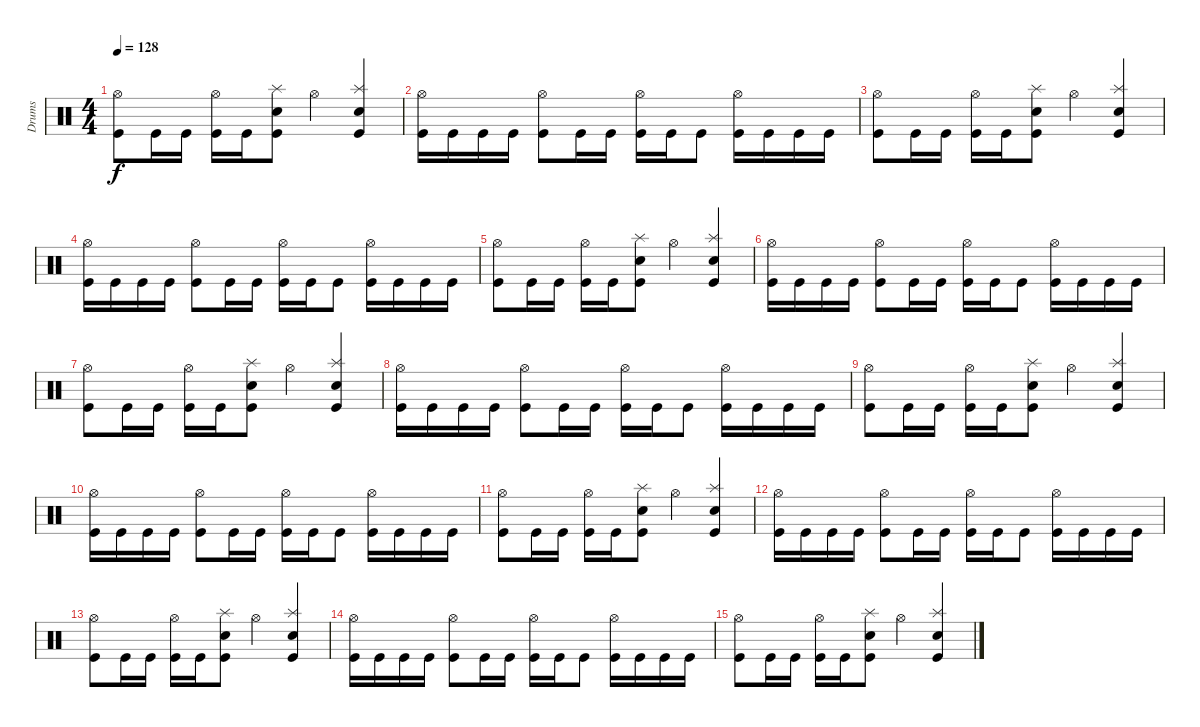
\track ("Drums" "Drums") {instrument percussion}
\staff {score}
\articulation defaults
\ts (4 4)
\tempo 128
\clef neutral
\ks c
("Hi-Hat (open)" "Kick (hit)").8{dy f} "Kick (hit)".16 "Kick (hit)".16 ("Hi-Hat (open)" "Kick (hit)").16 "Kick (hit)".16 ("Splash (hit)" "Snare (hit) 2" "Kick (hit)").8 "Hi-Hat (open)".4 ("Splash (hit)" "Snare (hit) 2" "Kick (hit)").4 |
("Hi-Hat (open)" "Kick (hit)").16 "Kick (hit)".16 "Kick (hit)".16 "Kick (hit)".16 ("Hi-Hat (open)" "Kick (hit)").8 "Kick (hit)".16 "Kick (hit)".16 ("Hi-Hat (open)" "Kick (hit)").16 "Kick (hit)".16 "Kick (hit)".8 ("Hi-Hat (open)" "Kick (hit)").16 "Kick (hit)".16 "Kick (hit)".16 "Kick (hit)".16 |
("Hi-Hat (open)" "Kick (hit)").8 "Kick (hit)".16 "Kick (hit)".16 ("Hi-Hat (open)" "Kick (hit)").16 "Kick (hit)".16 ("Splash (hit)" "Snare (hit) 2" "Kick (hit)").8 "Hi-Hat (open)".4 ("Splash (hit)" "Snare (hit) 2" "Kick (hit)").4 |
("Hi-Hat (open)" "Kick (hit)").16 "Kick (hit)".16 "Kick (hit)".16 "Kick (hit)".16 ("Hi-Hat (open)" "Kick (hit)").8 "Kick (hit)".16 "Kick (hit)".16 ("Hi-Hat (open)" "Kick (hit)").16 "Kick (hit)".16 "Kick (hit)".8 ("Hi-Hat (open)" "Kick (hit)").16 "Kick (hit)".16 "Kick (hit)".16 "Kick (hit)".16 |
("Hi-Hat (open)" "Kick (hit)").8 "Kick (hit)".16 "Kick (hit)".16 ("Hi-Hat (open)" "Kick (hit)").16 "Kick (hit)".16 ("Splash (hit)" "Snare (hit) 2" "Kick (hit)").8 "Hi-Hat (open)".4 ("Splash (hit)" "Snare (hit) 2" "Kick (hit)").4 |
("Hi-Hat (open)" "Kick (hit)").16 "Kick (hit)".16 "Kick (hit)".16 "Kick (hit)".16 ("Hi-Hat (open)" "Kick (hit)").8 "Kick (hit)".16 "Kick (hit)".16 ("Hi-Hat (open)" "Kick (hit)").16 "Kick (hit)".16 "Kick (hit)".8 ("Hi-Hat (open)" "Kick (hit)").16 "Kick (hit)".16 "Kick (hit)".16 "Kick (hit)".16 |
("Hi-Hat (open)" "Kick (hit)").8 "Kick (hit)".16 "Kick (hit)".16 ("Hi-Hat (open)" "Kick (hit)").16 "Kick (hit)".16 ("Splash (hit)" "Snare (hit) 2" "Kick (hit)").8 "Hi-Hat (open)".4 ("Splash (hit)" "Snare (hit) 2" "Kick (hit)").4 |
("Hi-Hat (open)" "Kick (hit)").16 "Kick (hit)".16 "Kick (hit)".16 "Kick (hit)".16 ("Hi-Hat (open)" "Kick (hit)").8 "Kick (hit)".16 "Kick (hit)".16 ("Hi-Hat (open)" "Kick (hit)").16 "Kick (hit)".16 "Kick (hit)".8 ("Hi-Hat (open)" "Kick (hit)").16 "Kick (hit)".16 "Kick (hit)".16 "Kick (hit)".16 |
("Hi-Hat (open)" "Kick (hit)").8 "Kick (hit)".16 "Kick (hit)".16 ("Hi-Hat (open)" "Kick (hit)").16 "Kick (hit)".16 ("Splash (hit)" "Snare (hit) 2" "Kick (hit)").8 "Hi-Hat (open)".4 ("Splash (hit)" "Snare (hit) 2" "Kick (hit)").4 |
("Hi-Hat (open)" "Kick (hit)").16 "Kick (hit)".16 "Kick (hit)".16 "Kick (hit)".16 ("Hi-Hat (open)" "Kick (hit)").8 "Kick (hit)".16 "Kick (hit)".16 ("Hi-Hat (open)" "Kick (hit)").16 "Kick (hit)".16 "Kick (hit)".8 ("Hi-Hat (open)" "Kick (hit)").16 "Kick (hit)".16 "Kick (hit)".16 "Kick (hit)".16 |
("Hi-Hat (open)" "Kick (hit)").8 "Kick (hit)".16 "Kick (hit)".16 ("Hi-Hat (open)" "Kick (hit)").16 "Kick (hit)".16 ("Splash (hit)" "Snare (hit) 2" "Kick (hit)").8 "Hi-Hat (open)".4 ("Splash (hit)" "Snare (hit) 2" "Kick (hit)").4 |
("Hi-Hat (open)" "Kick (hit)").16{volume 0} "Kick (hit)".16 "Kick (hit)".16 "Kick (hit)".16 ("Hi-Hat (open)" "Kick (hit)").8 "Kick (hit)".16 "Kick (hit)".16 ("Hi-Hat (open)" "Kick (hit)").16 "Kick (hit)".16 "Kick (hit)".8 ("Hi-Hat (open)" "Kick (hit)").16 "Kick (hit)".16 "Kick (hit)".16 "Kick (hit)".16 |
("Hi-Hat (open)" "Kick (hit)").8 "Kick (hit)".16 "Kick (hit)".16 ("Hi-Hat (open)" "Kick (hit)").16 "Kick (hit)".16 ("Splash (hit)" "Snare (hit) 2" "Kick (hit)").8 "Hi-Hat (open)".4 ("Splash (hit)" "Snare (hit) 2" "Kick (hit)").4 |
("Hi-Hat (open)" "Kick (hit)").16 "Kick (hit)".16 "Kick (hit)".16 "Kick (hit)".16 ("Hi-Hat (open)" "Kick (hit)").8 "Kick (hit)".16 "Kick (hit)".16 ("Hi-Hat (open)" "Kick (hit)").16 "Kick (hit)".16 "Kick (hit)".8 ("Hi-Hat (open)" "Kick (hit)").16 "Kick (hit)".16 "Kick (hit)".16 "Kick (hit)".16 |
("Hi-Hat (open)" "Kick (hit)").8 "Kick (hit)".16 "Kick (hit)".16 ("Hi-Hat (open)" "Kick (hit)").16 "Kick (hit)".16 ("Splash (hit)" "Snare (hit) 2" "Kick (hit)").8 "Hi-Hat (open)".4 ("Splash (hit)" "Snare (hit) 2" "Kick (hit)").4
